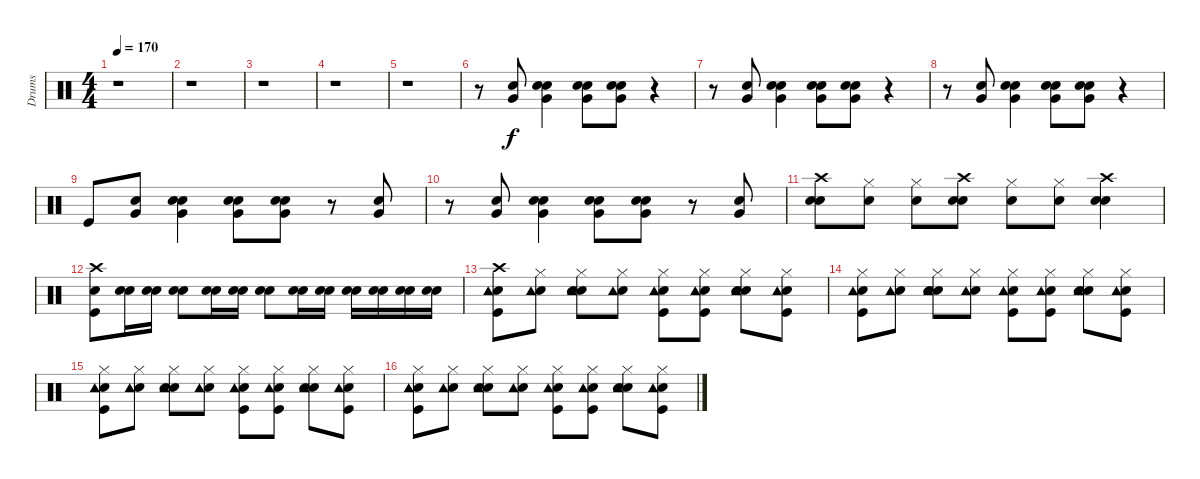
\track ("Drums" "Drums") {instrument percussion}
\staff {score}
\articulation defaults
\ts (4 4)
\tempo 170
\clef neutral
\ks c
r.1{dy f} |
r.1 |
r.1 |
r.1 |
r.1 |
r.8 ("Electric Snare (hit)" "Very Low Tom (hit)").8 ("Snare (hit)" "Electric Snare (hit)" "Very Low Tom (hit)").4 ("Snare (hit)" "Electric Snare (hit)" "Very Low Tom (hit)").8 ("Snare (hit)" "Electric Snare (hit)" "Very Low Tom (hit)").8 r.4 |
r.8 ("Electric Snare (hit)" "Very Low Tom (hit)").8 ("Snare (hit)" "Electric Snare (hit)" "Very Low Tom (hit)").4 ("Snare (hit)" "Electric Snare (hit)" "Very Low Tom (hit)").8 ("Snare (hit)" "Electric Snare (hit)" "Very Low Tom (hit)").8 r.4 |
r.8 ("Electric Snare (hit)" "Very Low Tom (hit)").8 ("Snare (hit)" "Electric Snare (hit)" "Very Low Tom (hit)").4 ("Snare (hit)" "Electric Snare (hit)" "Very Low Tom (hit)").8 ("Snare (hit)" "Electric Snare (hit)" "Very Low Tom (hit)").8 r.4 |
"Kick (hit)".8 ("Electric Snare (hit)" "Very Low Tom (hit)").8 ("Snare (hit)" "Electric Snare (hit)" "Very Low Tom (hit)").4 ("Snare (hit)" "Electric Snare (hit)" "Very Low Tom (hit)").8 ("Snare (hit)" "Electric Snare (hit)" "Very Low Tom (hit)").8 r.8 ("Electric Snare (hit)" "Very Low Tom (hit)").8 |
r.8 ("Electric Snare (hit)" "Very Low Tom (hit)").8 ("Snare (hit)" "Electric Snare (hit)" "Very Low Tom (hit)").4 ("Snare (hit)" "Electric Snare (hit)" "Very Low Tom (hit)").8 ("Snare (hit)" "Electric Snare (hit)" "Very Low Tom (hit)").8 r.8 ("Electric Snare (hit)" "Very Low Tom (hit)").8 |
("Snare (hit)" "Electric Snare (hit)" "Crash high (hit)").8 ("Snare (hit)" "Hi-Hat (closed)").8 ("Snare (hit)" "Hi-Hat (closed)").8 ("Snare (hit)" "Electric Snare (hit)" "Crash high (hit)").8 ("Snare (hit)" "Hi-Hat (closed)").8 ("Snare (hit)" "Hi-Hat (closed)").8 ("Snare (hit)" "Electric Snare (hit)" "Crash high (hit)").4 |
("Snare (hit)" "Crash high (hit)" "Kick (hit)").8 ("Snare (hit)" "Electric Snare (hit)").16 ("Snare (hit)" "Electric Snare (hit)").16 ("Snare (hit)" "Electric Snare (hit)").8 ("Snare (hit)" "Electric Snare (hit)").16 ("Snare (hit)" "Electric Snare (hit)").16 ("Snare (hit)" "Electric Snare (hit)").8 ("Snare (hit)" "Electric Snare (hit)").16 ("Snare (hit)" "Electric Snare (hit)").16 ("Snare (hit)" "Electric Snare (hit)").16 ("Snare (hit)" "Electric Snare (hit)").16 ("Snare (hit)" "Electric Snare (hit)").16 ("Snare (hit)" "Electric Snare (hit)").16 |
("Snare (hit)" "Kick (hit)" "Tambourine (hit)" "Crash high (hit)").8 ("Snare (hit)" "Tambourine (hit)" "Hi-Hat (closed)").8 ("Snare (hit)" "Tambourine (hit)" "Electric Snare (hit)" "Hi-Hat (closed)").8 ("Snare (hit)" "Tambourine (hit)" "Hi-Hat (closed)").8 ("Snare (hit)" "Kick (hit)" "Tambourine (hit)" "Hi-Hat (closed)").8 ("Snare (hit)" "Kick (hit)" "Tambourine (hit)" "Hi-Hat (closed)").8 ("Snare (hit)" "Tambourine (hit)" "Electric Snare (hit)" "Hi-Hat (closed)").8 ("Snare (hit)" "Kick (hit)" "Tambourine (hit)" "Hi-Hat (closed)").8 |
("Snare (hit)" "Kick (hit)" "Tambourine (hit)" "Hi-Hat (closed)").8 ("Snare (hit)" "Tambourine (hit)" "Hi-Hat (closed)").8 ("Snare (hit)" "Tambourine (hit)" "Electric Snare (hit)" "Hi-Hat (closed)").8 ("Snare (hit)" "Tambourine (hit)" "Hi-Hat (closed)").8 ("Snare (hit)" "Kick (hit)" "Tambourine (hit)" "Hi-Hat (closed)").8 ("Snare (hit)" "Kick (hit)" "Tambourine (hit)" "Hi-Hat (closed)").8 ("Snare (hit)" "Tambourine (hit)" "Electric Snare (hit)" "Hi-Hat (closed)").8 ("Snare (hit)" "Kick (hit)" "Tambourine (hit)" "Hi-Hat (closed)").8 |
("Snare (hit)" "Kick (hit)" "Tambourine (hit)" "Hi-Hat (closed)").8 ("Snare (hit)" "Tambourine (hit)" "Hi-Hat (closed)").8 ("Snare (hit)" "Tambourine (hit)" "Electric Snare (hit)" "Hi-Hat (closed)").8 ("Snare (hit)" "Tambourine (hit)" "Hi-Hat (closed)").8 ("Snare (hit)" "Kick (hit)" "Tambourine (hit)" "Hi-Hat (closed)").8 ("Snare (hit)" "Kick (hit)" "Tambourine (hit)" "Hi-Hat (closed)").8 ("Snare (hit)" "Tambourine (hit)" "Electric Snare (hit)" "Hi-Hat (closed)").8 ("Snare (hit)" "Kick (hit)" "Tambourine (hit)" "Hi-Hat (closed)").8 |
("Snare (hit)" "Kick (hit)" "Tambourine (hit)" "Hi-Hat (closed)").8 ("Snare (hit)" "Tambourine (hit)" "Hi-Hat (closed)").8 ("Snare (hit)" "Tambourine (hit)" "Electric Snare (hit)" "Hi-Hat (closed)").8 ("Snare (hit)" "Tambourine (hit)" "Hi-Hat (closed)").8 ("Snare (hit)" "Kick (hit)" "Tambourine (hit)" "Hi-Hat (closed)").8 ("Snare (hit)" "Kick (hit)" "Tambourine (hit)" "Hi-Hat (closed)").8 ("Snare (hit)" "Tambourine (hit)" "Electric Snare (hit)" "Hi-Hat (closed)").8 ("Snare (hit)" "Kick (hit)" "Tambourine (hit)" "Hi-Hat (closed)").8
